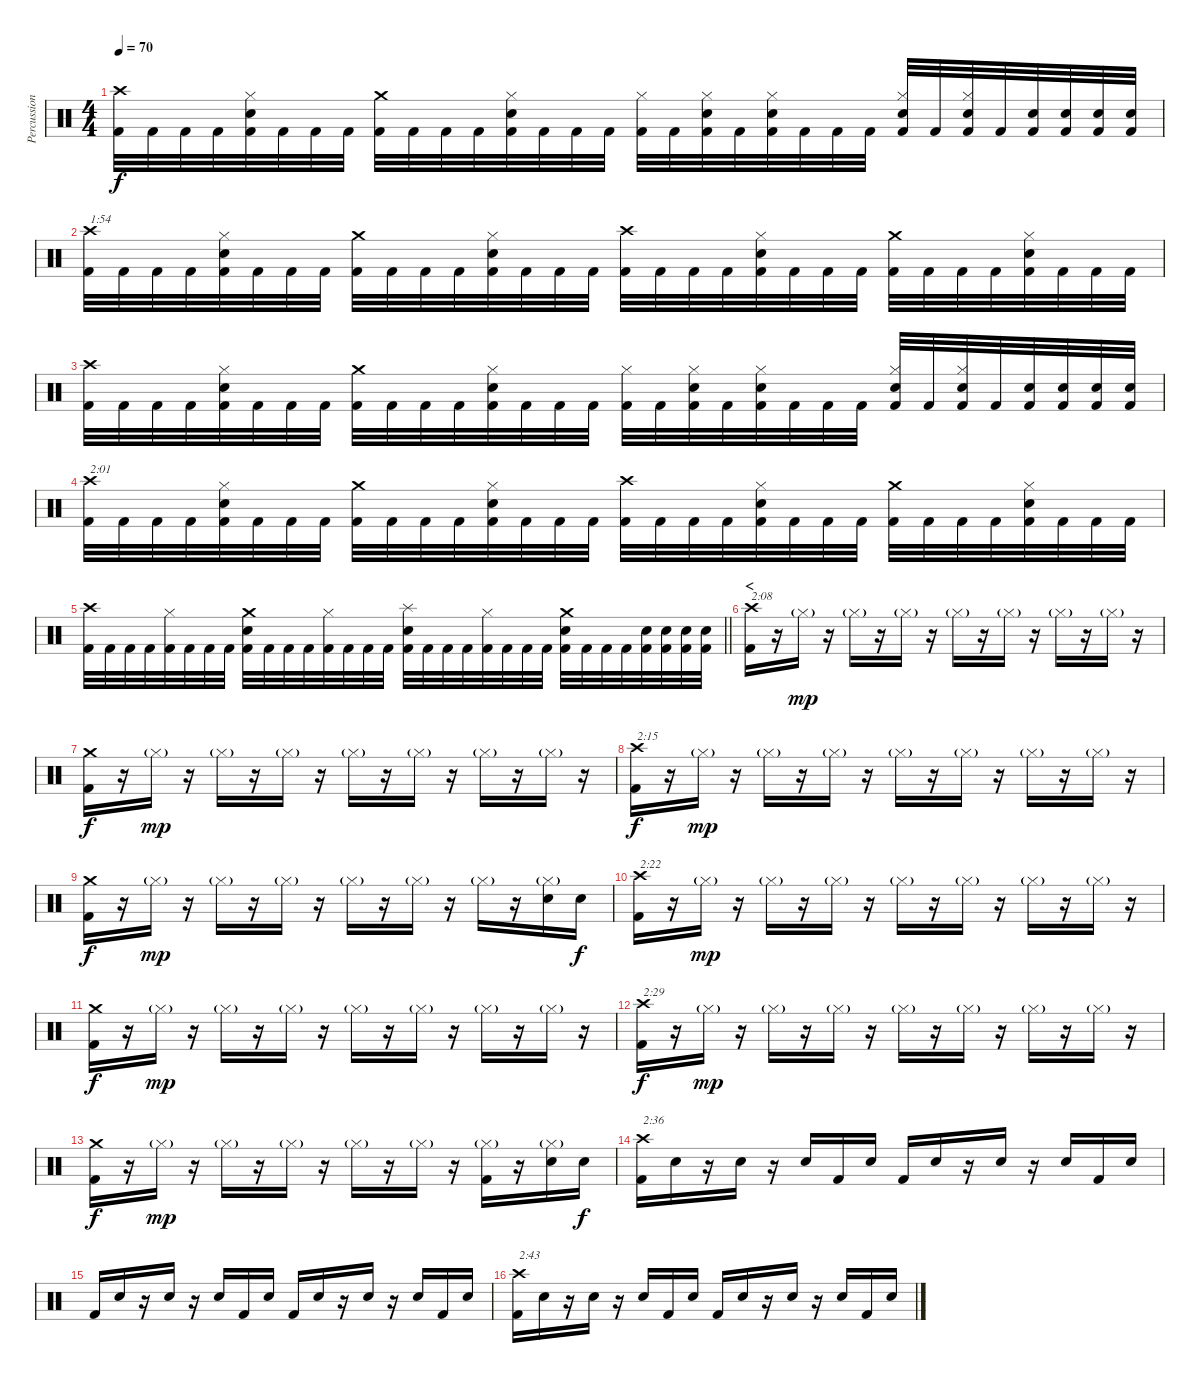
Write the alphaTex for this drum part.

\track ("Percussion" "Percussion") {instrument percussion}
\staff {score}
\articulation defaults
\ts (4 4)
\tempo 70
\clef neutral
\ks c
("Crash high (hit)" "Kick (hit) 2").32{dy f} "Kick (hit) 2".32 "Kick (hit) 2".32 "Kick (hit) 2".32 ("Hi-Hat (closed)" "Snare (hit) 2" "Kick (hit) 2").32 "Kick (hit) 2".32 "Kick (hit) 2".32 "Kick (hit) 2".32 ("Crash medium (hit)" "Kick (hit) 2").32 "Kick (hit) 2".32 "Kick (hit) 2".32 "Kick (hit) 2".32 ("Hi-Hat (closed)" "Snare (hit) 2" "Kick (hit) 2").32 "Kick (hit) 2".32 "Kick (hit) 2".32 "Kick (hit) 2".32 ("Hi-Hat (closed)" "Kick (hit) 2").32 "Kick (hit) 2".32 ("Hi-Hat (closed)" "Snare (hit) 2" "Kick (hit) 2").32 "Kick (hit) 2".32 ("Hi-Hat (closed)" "Snare (hit) 2" "Kick (hit) 2").32 "Kick (hit) 2".32 "Kick (hit) 2".32 "Kick (hit) 2".32 ("Hi-Hat (closed)" "Snare (hit) 2" "Kick (hit) 2").32 "Kick (hit) 2".32 ("Hi-Hat (closed)" "Snare (hit) 2" "Kick (hit) 2").32 "Kick (hit) 2".32 ("Snare (hit) 2" "Kick (hit) 2").32 ("Snare (hit) 2" "Kick (hit) 2").32 ("Snare (hit) 2" "Kick (hit) 2").32 ("Snare (hit) 2" "Kick (hit) 2").32 |
("Crash high (hit)" "Kick (hit) 2").32{txt "1:54"} "Kick (hit) 2".32 "Kick (hit) 2".32 "Kick (hit) 2".32 ("Hi-Hat (closed)" "Snare (hit) 2" "Kick (hit) 2").32 "Kick (hit) 2".32 "Kick (hit) 2".32 "Kick (hit) 2".32 ("Crash medium (hit)" "Kick (hit) 2").32 "Kick (hit) 2".32 "Kick (hit) 2".32 "Kick (hit) 2".32 ("Hi-Hat (closed)" "Snare (hit) 2" "Kick (hit) 2").32 "Kick (hit) 2".32 "Kick (hit) 2".32 "Kick (hit) 2".32 ("Crash high (hit)" "Kick (hit) 2").32 "Kick (hit) 2".32 "Kick (hit) 2".32 "Kick (hit) 2".32 ("Hi-Hat (closed)" "Snare (hit) 2" "Kick (hit) 2").32 "Kick (hit) 2".32 "Kick (hit) 2".32 "Kick (hit) 2".32 ("Crash medium (hit)" "Kick (hit) 2").32 "Kick (hit) 2".32 "Kick (hit) 2".32 "Kick (hit) 2".32 ("Hi-Hat (closed)" "Snare (hit) 2" "Kick (hit) 2").32 "Kick (hit) 2".32 "Kick (hit) 2".32 "Kick (hit) 2".32 |
("Crash high (hit)" "Kick (hit) 2").32 "Kick (hit) 2".32 "Kick (hit) 2".32 "Kick (hit) 2".32 ("Hi-Hat (closed)" "Snare (hit) 2" "Kick (hit) 2").32 "Kick (hit) 2".32 "Kick (hit) 2".32 "Kick (hit) 2".32 ("Crash medium (hit)" "Kick (hit) 2").32 "Kick (hit) 2".32 "Kick (hit) 2".32 "Kick (hit) 2".32 ("Hi-Hat (closed)" "Snare (hit) 2" "Kick (hit) 2").32 "Kick (hit) 2".32 "Kick (hit) 2".32 "Kick (hit) 2".32 ("Hi-Hat (closed)" "Kick (hit) 2").32 "Kick (hit) 2".32 ("Hi-Hat (closed)" "Snare (hit) 2" "Kick (hit) 2").32 "Kick (hit) 2".32 ("Hi-Hat (closed)" "Snare (hit) 2" "Kick (hit) 2").32 "Kick (hit) 2".32 "Kick (hit) 2".32 "Kick (hit) 2".32 ("Hi-Hat (closed)" "Snare (hit) 2" "Kick (hit) 2").32 "Kick (hit) 2".32 ("Hi-Hat (closed)" "Snare (hit) 2" "Kick (hit) 2").32 "Kick (hit) 2".32 ("Snare (hit) 2" "Kick (hit) 2").32 ("Snare (hit) 2" "Kick (hit) 2").32 ("Snare (hit) 2" "Kick (hit) 2").32 ("Snare (hit) 2" "Kick (hit) 2").32 |
("Crash high (hit)" "Kick (hit) 2").32{txt "2:01"} "Kick (hit) 2".32 "Kick (hit) 2".32 "Kick (hit) 2".32 ("Hi-Hat (closed)" "Snare (hit) 2" "Kick (hit) 2").32 "Kick (hit) 2".32 "Kick (hit) 2".32 "Kick (hit) 2".32 ("Crash medium (hit)" "Kick (hit) 2").32 "Kick (hit) 2".32 "Kick (hit) 2".32 "Kick (hit) 2".32 ("Hi-Hat (closed)" "Snare (hit) 2" "Kick (hit) 2").32 "Kick (hit) 2".32 "Kick (hit) 2".32 "Kick (hit) 2".32 ("Crash high (hit)" "Kick (hit) 2").32 "Kick (hit) 2".32 "Kick (hit) 2".32 "Kick (hit) 2".32 ("Hi-Hat (closed)" "Snare (hit) 2" "Kick (hit) 2").32 "Kick (hit) 2".32 "Kick (hit) 2".32 "Kick (hit) 2".32 ("Crash medium (hit)" "Kick (hit) 2").32 "Kick (hit) 2".32 "Kick (hit) 2".32 "Kick (hit) 2".32 ("Hi-Hat (closed)" "Snare (hit) 2" "Kick (hit) 2").32 "Kick (hit) 2".32 "Kick (hit) 2".32 "Kick (hit) 2".32 |
\barLineRight lightlight
("Crash high (hit)" "Kick (hit) 2").32 "Kick (hit) 2".32 "Kick (hit) 2".32 "Kick (hit) 2".32 ("Hi-Hat (closed)" "Kick (hit) 2").32 "Kick (hit) 2".32 "Kick (hit) 2".32 "Kick (hit) 2".32 ("Crash medium (hit)" "Snare (hit) 2" "Kick (hit) 2").32 "Kick (hit) 2".32 "Kick (hit) 2".32 "Kick (hit) 2".32 ("Hi-Hat (closed)" "Kick (hit) 2").32 "Kick (hit) 2".32 "Kick (hit) 2".32 "Kick (hit) 2".32 ("Splash (hit)" "Snare (hit) 2" "Kick (hit) 2").32 "Kick (hit) 2".32 "Kick (hit) 2".32 "Kick (hit) 2".32 ("Hi-Hat (closed)" "Kick (hit) 2").32 "Kick (hit) 2".32 "Kick (hit) 2".32 "Kick (hit) 2".32 ("Crash medium (hit)" "Snare (hit) 2" "Kick (hit) 2").32 "Kick (hit) 2".32 "Kick (hit) 2".32 "Kick (hit) 2".32 ("Snare (hit) 2" "Kick (hit) 2").32 ("Snare (hit) 2" "Kick (hit) 2").32 ("Snare (hit) 2" "Kick (hit) 2").32 ("Snare (hit) 2" "Kick (hit) 2").32 |
\section ("" "<")
("Crash high (hit)" "Kick (hit) 2").16{txt "2:08"} r.16 "Hi-Hat (closed)"{g}.16{dy mp} r.16 "Hi-Hat (closed)"{g}.16 r.16 "Hi-Hat (closed)"{g}.16 r.16 "Hi-Hat (closed)"{g}.16 r.16 "Hi-Hat (closed)"{g}.16 r.16 "Hi-Hat (closed)"{g}.16 r.16 "Hi-Hat (closed)"{g}.16 r.16 |
("Crash medium (hit)" "Kick (hit) 2").16{dy f} r.16 "Hi-Hat (closed)"{g}.16{dy mp} r.16 "Hi-Hat (closed)"{g}.16 r.16 "Hi-Hat (closed)"{g}.16 r.16 "Hi-Hat (closed)"{g}.16 r.16 "Hi-Hat (closed)"{g}.16 r.16 "Hi-Hat (closed)"{g}.16 r.16 "Hi-Hat (closed)"{g}.16 r.16 |
("Crash high (hit)" "Kick (hit) 2").16{txt "2:15" dy f} r.16 "Hi-Hat (closed)"{g}.16{dy mp} r.16 "Hi-Hat (closed)"{g}.16 r.16 "Hi-Hat (closed)"{g}.16 r.16 "Hi-Hat (closed)"{g}.16 r.16 "Hi-Hat (closed)"{g}.16 r.16 "Hi-Hat (closed)"{g}.16 r.16 "Hi-Hat (closed)"{g}.16 r.16 |
("Crash medium (hit)" "Kick (hit) 2").16{dy f} r.16 "Hi-Hat (closed)"{g}.16{dy mp} r.16 "Hi-Hat (closed)"{g}.16 r.16 "Hi-Hat (closed)"{g}.16 r.16 "Hi-Hat (closed)"{g}.16 r.16 "Hi-Hat (closed)"{g}.16 r.16 "Hi-Hat (closed)"{g}.16 r.16 ("Hi-Hat (closed)"{g} "Snare (hit) 2").16 "Snare (hit) 2".16{dy f} |
("Crash high (hit)" "Kick (hit) 2").16{txt "2:22"} r.16 "Hi-Hat (closed)"{g}.16{dy mp} r.16 "Hi-Hat (closed)"{g}.16 r.16 "Hi-Hat (closed)"{g}.16 r.16 "Hi-Hat (closed)"{g}.16 r.16 "Hi-Hat (closed)"{g}.16 r.16 "Hi-Hat (closed)"{g}.16 r.16 "Hi-Hat (closed)"{g}.16 r.16 |
("Crash medium (hit)" "Kick (hit) 2").16{dy f} r.16 "Hi-Hat (closed)"{g}.16{dy mp} r.16 "Hi-Hat (closed)"{g}.16 r.16 "Hi-Hat (closed)"{g}.16 r.16 "Hi-Hat (closed)"{g}.16 r.16 "Hi-Hat (closed)"{g}.16 r.16 "Hi-Hat (closed)"{g}.16 r.16 "Hi-Hat (closed)"{g}.16 r.16 |
("Crash high (hit)" "Kick (hit) 2").16{txt "2:29" dy f} r.16 "Hi-Hat (closed)"{g}.16{dy mp} r.16 "Hi-Hat (closed)"{g}.16 r.16 "Hi-Hat (closed)"{g}.16 r.16 "Hi-Hat (closed)"{g}.16 r.16 "Hi-Hat (closed)"{g}.16 r.16 "Hi-Hat (closed)"{g}.16 r.16 "Hi-Hat (closed)"{g}.16 r.16 |
("Crash medium (hit)" "Kick (hit) 2").16{dy f} r.16 "Hi-Hat (closed)"{g}.16{dy mp} r.16 "Hi-Hat (closed)"{g}.16 r.16 "Hi-Hat (closed)"{g}.16 r.16 "Hi-Hat (closed)"{g}.16 r.16 "Hi-Hat (closed)"{g}.16 r.16 ("Hi-Hat (closed)"{g} "Kick (hit) 2").16 r.16 ("Hi-Hat (closed)"{g} "Snare (hit) 2").16 "Snare (hit) 2".16{dy f} |
("Crash high (hit)" "Kick (hit) 2").16{txt "2:36"} "Snare (hit) 2".16 r.16 "Snare (hit) 2".16 r.16 "Snare (hit) 2".16 "Kick (hit) 2".16 "Snare (hit) 2".16 "Kick (hit) 2".16 "Snare (hit) 2".16 r.16 "Snare (hit) 2".16 r.16 "Snare (hit) 2".16 "Kick (hit) 2".16 "Snare (hit) 2".16 |
"Kick (hit) 2".16 "Snare (hit) 2".16 r.16 "Snare (hit) 2".16 r.16 "Snare (hit) 2".16 "Kick (hit) 2".16 "Snare (hit) 2".16 "Kick (hit) 2".16 "Snare (hit) 2".16 r.16 "Snare (hit) 2".16 r.16 "Snare (hit) 2".16 "Kick (hit) 2".16 "Snare (hit) 2".16 |
("Crash high (hit)" "Kick (hit) 2").16{txt "2:43"} "Snare (hit) 2".16 r.16 "Snare (hit) 2".16 r.16 "Snare (hit) 2".16 "Kick (hit) 2".16 "Snare (hit) 2".16 "Kick (hit) 2".16 "Snare (hit) 2".16 r.16 "Snare (hit) 2".16 r.16 "Snare (hit) 2".16 "Kick (hit) 2".16 "Snare (hit) 2".16
